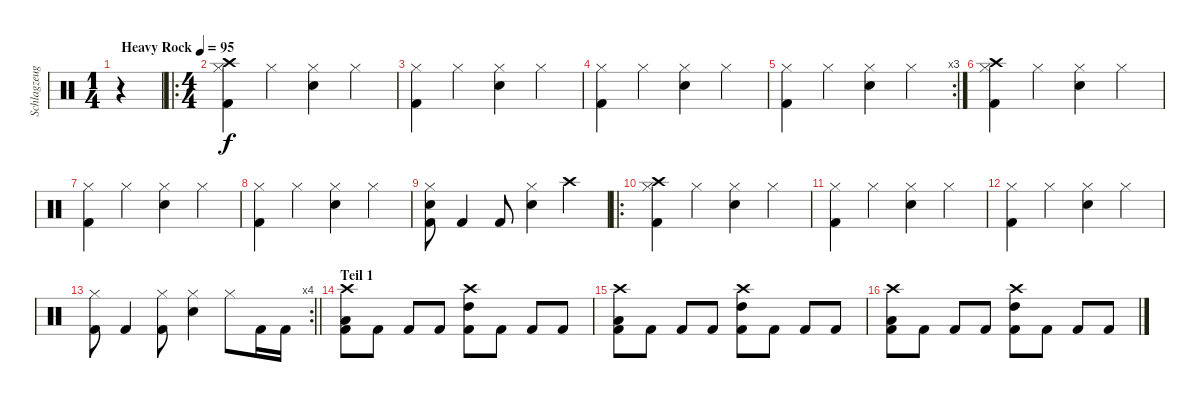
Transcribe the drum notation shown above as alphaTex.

\track ("Schlagzeug" "Schlagzeug") {instrument percussion}
\staff {score}
\articulation defaults
\ts (1 4)
\tempo (95 "Heavy Rock")
\clef neutral
\ks c
r.4{dy f} |
\ro
\ts (4 4)
("Crash high (hit)" "Hi-Hat (closed)" "Kick (hit) 2").4 "Hi-Hat (closed)".4 ("Hi-Hat (closed)" "Snare (hit) 2").4 "Hi-Hat (closed)".4 |
("Hi-Hat (closed)" "Kick (hit) 2").4 "Hi-Hat (closed)".4 ("Hi-Hat (closed)" "Snare (hit) 2").4 "Hi-Hat (closed)".4 |
("Hi-Hat (closed)" "Kick (hit) 2").4 "Hi-Hat (closed)".4 ("Hi-Hat (closed)" "Snare (hit) 2").4 "Hi-Hat (closed)".4 |
\rc 3
("Hi-Hat (closed)" "Kick (hit) 2").4 "Hi-Hat (closed)".4 ("Hi-Hat (closed)" "Snare (hit) 2").4 "Hi-Hat (closed)".4 |
("Crash high (hit)" "Hi-Hat (closed)" "Kick (hit) 2").4 "Hi-Hat (closed)".4 ("Hi-Hat (closed)" "Snare (hit) 2").4 "Hi-Hat (closed)".4 |
("Hi-Hat (closed)" "Kick (hit) 2").4 "Hi-Hat (closed)".4 ("Hi-Hat (closed)" "Snare (hit) 2").4 "Hi-Hat (closed)".4 |
("Hi-Hat (closed)" "Kick (hit) 2").4 "Hi-Hat (closed)".4 ("Hi-Hat (closed)" "Snare (hit) 2").4 "Hi-Hat (closed)".4 |
("Hi-Hat (closed)" "Snare (hit) 2" "Kick (hit) 2").8 "Kick (hit) 2".4 "Kick (hit) 2".8 ("Hi-Hat (closed)" "Snare (hit) 2").4 "Crash high (hit)".4 |
\ro
("Crash high (hit)" "Hi-Hat (closed)" "Kick (hit) 2").4 "Hi-Hat (closed)".4 ("Hi-Hat (closed)" "Snare (hit) 2").4 "Hi-Hat (closed)".4 |
("Hi-Hat (closed)" "Kick (hit) 2").4 "Hi-Hat (closed)".4 ("Hi-Hat (closed)" "Snare (hit) 2").4 "Hi-Hat (closed)".4 |
("Hi-Hat (closed)" "Kick (hit) 2").4 "Hi-Hat (closed)".4 ("Hi-Hat (closed)" "Snare (hit) 2").4 "Hi-Hat (closed)".4 |
\rc 4
\barLineRight lightlight
("Hi-Hat (closed)" "Kick (hit) 2").8 "Kick (hit) 2".4 ("Hi-Hat (closed)" "Kick (hit) 2").8 ("Hi-Hat (closed)" "Snare (hit) 2").4 "Hi-Hat (closed)".8 "Kick (hit) 2".16 "Kick (hit) 2".16 |
\section ("" "Teil 1")
("Crash high (hit)" "Low Tom (hit)" "Kick (hit) 2").8 "Kick (hit) 2".8 "Kick (hit) 2".8 "Kick (hit) 2".8 ("Crash high (hit)" "High Tom (hit)" "Kick (hit) 2").8 "Kick (hit) 2".8 "Kick (hit) 2".8 "Kick (hit) 2".8 |
("Crash high (hit)" "Low Tom (hit)" "Kick (hit) 2").8 "Kick (hit) 2".8 "Kick (hit) 2".8 "Kick (hit) 2".8 ("Crash high (hit)" "High Tom (hit)" "Kick (hit) 2").8 "Kick (hit) 2".8 "Kick (hit) 2".8 "Kick (hit) 2".8 |
("Crash high (hit)" "Low Tom (hit)" "Kick (hit) 2").8 "Kick (hit) 2".8 "Kick (hit) 2".8 "Kick (hit) 2".8 ("Crash high (hit)" "High Tom (hit)" "Kick (hit) 2").8 "Kick (hit) 2".8 "Kick (hit) 2".8 "Kick (hit) 2".8
